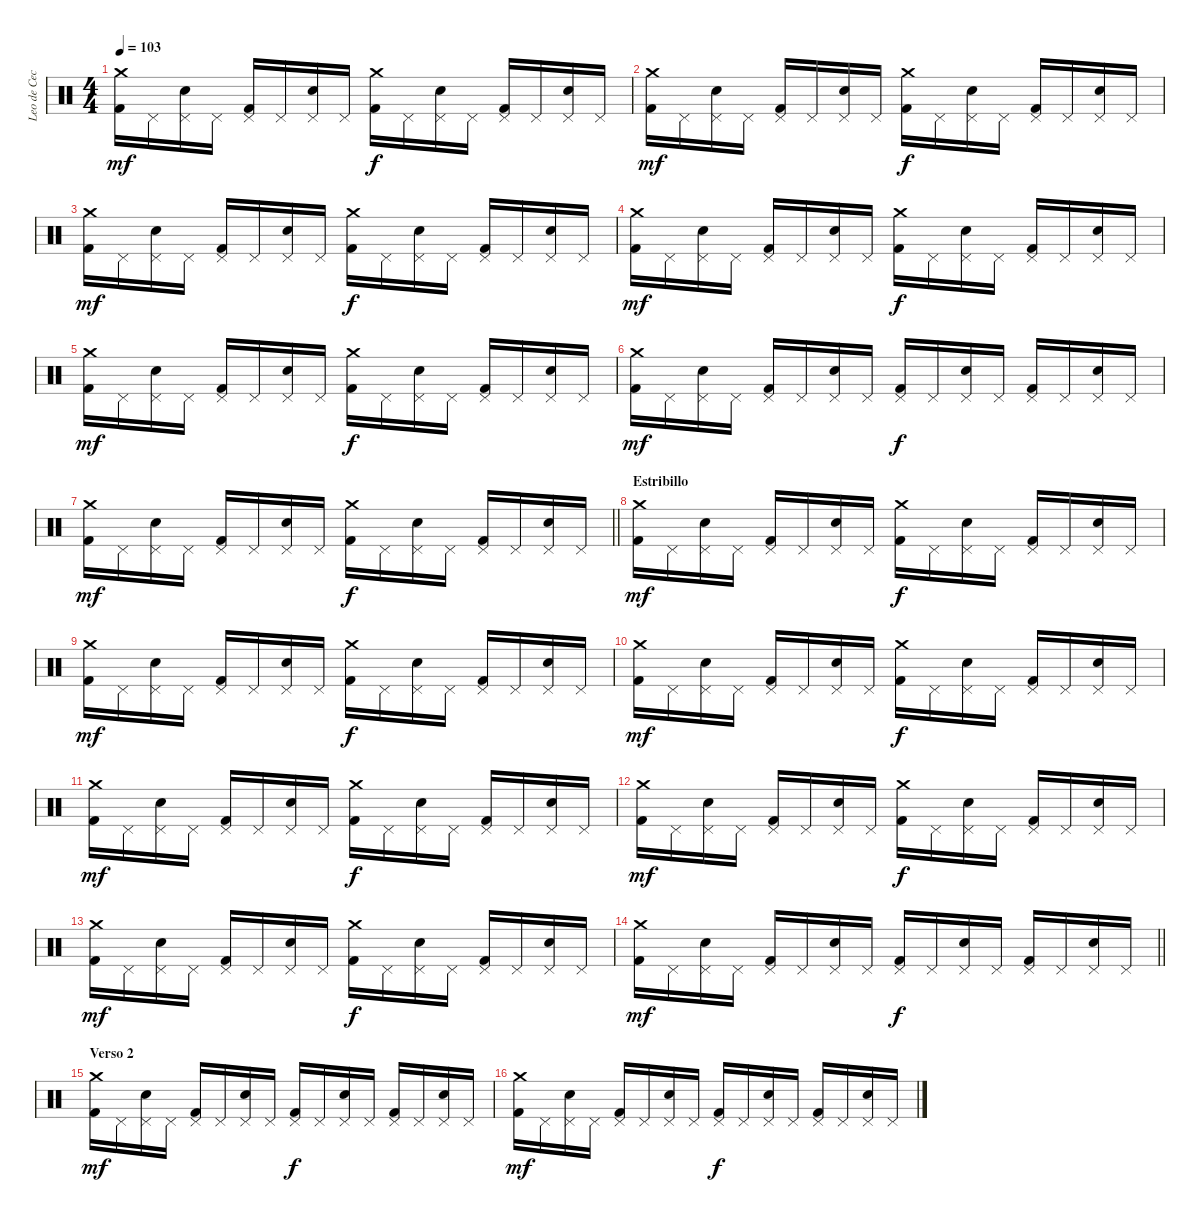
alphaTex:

\track ("Leo de Cecco" "Leo de Cec") {instrument percussion}
\staff {score}
\articulation defaults
\ts (4 4)
\tempo 103
\clef neutral
\ks c
("Crash medium (hit)" "Kick (hit) 2").16{dy mf} "Pedal Hi-Hat (hit)".16 ("Pedal Hi-Hat (hit)" "Snare (hit) 2").16 "Pedal Hi-Hat (hit)".16 ("Pedal Hi-Hat (hit)" "Kick (hit) 2").16 "Pedal Hi-Hat (hit)".16 ("Pedal Hi-Hat (hit)" "Snare (hit) 2").16 "Pedal Hi-Hat (hit)".16 ("Crash medium (hit)" "Kick (hit) 2").16{dy f} "Pedal Hi-Hat (hit)".16 ("Pedal Hi-Hat (hit)" "Snare (hit) 2").16 "Pedal Hi-Hat (hit)".16 ("Pedal Hi-Hat (hit)" "Kick (hit) 2").16 "Pedal Hi-Hat (hit)".16 ("Pedal Hi-Hat (hit)" "Snare (hit) 2").16 "Pedal Hi-Hat (hit)".16 |
("Crash medium (hit)" "Kick (hit) 2").16{dy mf} "Pedal Hi-Hat (hit)".16 ("Pedal Hi-Hat (hit)" "Snare (hit) 2").16 "Pedal Hi-Hat (hit)".16 ("Pedal Hi-Hat (hit)" "Kick (hit) 2").16 "Pedal Hi-Hat (hit)".16 ("Pedal Hi-Hat (hit)" "Snare (hit) 2").16 "Pedal Hi-Hat (hit)".16 ("Crash medium (hit)" "Kick (hit) 2").16{dy f} "Pedal Hi-Hat (hit)".16 ("Pedal Hi-Hat (hit)" "Snare (hit) 2").16 "Pedal Hi-Hat (hit)".16 ("Pedal Hi-Hat (hit)" "Kick (hit) 2").16 "Pedal Hi-Hat (hit)".16 ("Pedal Hi-Hat (hit)" "Snare (hit) 2").16 "Pedal Hi-Hat (hit)".16 |
("Crash medium (hit)" "Kick (hit) 2").16{dy mf} "Pedal Hi-Hat (hit)".16 ("Pedal Hi-Hat (hit)" "Snare (hit) 2").16 "Pedal Hi-Hat (hit)".16 ("Pedal Hi-Hat (hit)" "Kick (hit) 2").16 "Pedal Hi-Hat (hit)".16 ("Pedal Hi-Hat (hit)" "Snare (hit) 2").16 "Pedal Hi-Hat (hit)".16 ("Crash medium (hit)" "Kick (hit) 2").16{dy f} "Pedal Hi-Hat (hit)".16 ("Pedal Hi-Hat (hit)" "Snare (hit) 2").16 "Pedal Hi-Hat (hit)".16 ("Pedal Hi-Hat (hit)" "Kick (hit) 2").16 "Pedal Hi-Hat (hit)".16 ("Pedal Hi-Hat (hit)" "Snare (hit) 2").16 "Pedal Hi-Hat (hit)".16 |
("Crash medium (hit)" "Kick (hit) 2").16{dy mf} "Pedal Hi-Hat (hit)".16 ("Pedal Hi-Hat (hit)" "Snare (hit) 2").16 "Pedal Hi-Hat (hit)".16 ("Pedal Hi-Hat (hit)" "Kick (hit) 2").16 "Pedal Hi-Hat (hit)".16 ("Pedal Hi-Hat (hit)" "Snare (hit) 2").16 "Pedal Hi-Hat (hit)".16 ("Crash medium (hit)" "Kick (hit) 2").16{dy f} "Pedal Hi-Hat (hit)".16 ("Pedal Hi-Hat (hit)" "Snare (hit) 2").16 "Pedal Hi-Hat (hit)".16 ("Pedal Hi-Hat (hit)" "Kick (hit) 2").16 "Pedal Hi-Hat (hit)".16 ("Pedal Hi-Hat (hit)" "Snare (hit) 2").16 "Pedal Hi-Hat (hit)".16 |
("Crash medium (hit)" "Kick (hit) 2").16{dy mf} "Pedal Hi-Hat (hit)".16 ("Pedal Hi-Hat (hit)" "Snare (hit) 2").16 "Pedal Hi-Hat (hit)".16 ("Pedal Hi-Hat (hit)" "Kick (hit) 2").16 "Pedal Hi-Hat (hit)".16 ("Pedal Hi-Hat (hit)" "Snare (hit) 2").16 "Pedal Hi-Hat (hit)".16 ("Crash medium (hit)" "Kick (hit) 2").16{dy f} "Pedal Hi-Hat (hit)".16 ("Pedal Hi-Hat (hit)" "Snare (hit) 2").16 "Pedal Hi-Hat (hit)".16 ("Pedal Hi-Hat (hit)" "Kick (hit) 2").16 "Pedal Hi-Hat (hit)".16 ("Pedal Hi-Hat (hit)" "Snare (hit) 2").16 "Pedal Hi-Hat (hit)".16 |
("Crash medium (hit)" "Kick (hit) 2").16{dy mf} "Pedal Hi-Hat (hit)".16 ("Pedal Hi-Hat (hit)" "Snare (hit) 2").16 "Pedal Hi-Hat (hit)".16 ("Pedal Hi-Hat (hit)" "Kick (hit) 2").16 "Pedal Hi-Hat (hit)".16 ("Pedal Hi-Hat (hit)" "Snare (hit) 2").16 "Pedal Hi-Hat (hit)".16 ("Pedal Hi-Hat (hit)" "Kick (hit) 2").16{dy f} "Pedal Hi-Hat (hit)".16 ("Pedal Hi-Hat (hit)" "Snare (hit) 2").16 "Pedal Hi-Hat (hit)".16 ("Pedal Hi-Hat (hit)" "Kick (hit) 2").16 "Pedal Hi-Hat (hit)".16 ("Pedal Hi-Hat (hit)" "Snare (hit) 2").16 "Pedal Hi-Hat (hit)".16 |
\barLineRight lightlight
("Crash medium (hit)" "Kick (hit) 2").16{dy mf} "Pedal Hi-Hat (hit)".16 ("Pedal Hi-Hat (hit)" "Snare (hit) 2").16 "Pedal Hi-Hat (hit)".16 ("Pedal Hi-Hat (hit)" "Kick (hit) 2").16 "Pedal Hi-Hat (hit)".16 ("Pedal Hi-Hat (hit)" "Snare (hit) 2").16 "Pedal Hi-Hat (hit)".16 ("Crash medium (hit)" "Kick (hit) 2").16{dy f} "Pedal Hi-Hat (hit)".16 ("Pedal Hi-Hat (hit)" "Snare (hit) 2").16 "Pedal Hi-Hat (hit)".16 ("Pedal Hi-Hat (hit)" "Kick (hit) 2").16 "Pedal Hi-Hat (hit)".16 ("Pedal Hi-Hat (hit)" "Snare (hit) 2").16 "Pedal Hi-Hat (hit)".16 |
\section ("" "Estribillo")
("Crash medium (hit)" "Kick (hit) 2").16{dy mf} "Pedal Hi-Hat (hit)".16 ("Pedal Hi-Hat (hit)" "Snare (hit) 2").16 "Pedal Hi-Hat (hit)".16 ("Pedal Hi-Hat (hit)" "Kick (hit) 2").16 "Pedal Hi-Hat (hit)".16 ("Pedal Hi-Hat (hit)" "Snare (hit) 2").16 "Pedal Hi-Hat (hit)".16 ("Crash medium (hit)" "Kick (hit) 2").16{dy f} "Pedal Hi-Hat (hit)".16 ("Pedal Hi-Hat (hit)" "Snare (hit) 2").16 "Pedal Hi-Hat (hit)".16 ("Pedal Hi-Hat (hit)" "Kick (hit) 2").16 "Pedal Hi-Hat (hit)".16 ("Pedal Hi-Hat (hit)" "Snare (hit) 2").16 "Pedal Hi-Hat (hit)".16 |
("Crash medium (hit)" "Kick (hit) 2").16{dy mf} "Pedal Hi-Hat (hit)".16 ("Pedal Hi-Hat (hit)" "Snare (hit) 2").16 "Pedal Hi-Hat (hit)".16 ("Pedal Hi-Hat (hit)" "Kick (hit) 2").16 "Pedal Hi-Hat (hit)".16 ("Pedal Hi-Hat (hit)" "Snare (hit) 2").16 "Pedal Hi-Hat (hit)".16 ("Crash medium (hit)" "Kick (hit) 2").16{dy f} "Pedal Hi-Hat (hit)".16 ("Pedal Hi-Hat (hit)" "Snare (hit) 2").16 "Pedal Hi-Hat (hit)".16 ("Pedal Hi-Hat (hit)" "Kick (hit) 2").16 "Pedal Hi-Hat (hit)".16 ("Pedal Hi-Hat (hit)" "Snare (hit) 2").16 "Pedal Hi-Hat (hit)".16 |
("Crash medium (hit)" "Kick (hit) 2").16{dy mf} "Pedal Hi-Hat (hit)".16 ("Pedal Hi-Hat (hit)" "Snare (hit) 2").16 "Pedal Hi-Hat (hit)".16 ("Pedal Hi-Hat (hit)" "Kick (hit) 2").16 "Pedal Hi-Hat (hit)".16 ("Pedal Hi-Hat (hit)" "Snare (hit) 2").16 "Pedal Hi-Hat (hit)".16 ("Crash medium (hit)" "Kick (hit) 2").16{dy f} "Pedal Hi-Hat (hit)".16 ("Pedal Hi-Hat (hit)" "Snare (hit) 2").16 "Pedal Hi-Hat (hit)".16 ("Pedal Hi-Hat (hit)" "Kick (hit) 2").16 "Pedal Hi-Hat (hit)".16 ("Pedal Hi-Hat (hit)" "Snare (hit) 2").16 "Pedal Hi-Hat (hit)".16 |
("Crash medium (hit)" "Kick (hit) 2").16{dy mf} "Pedal Hi-Hat (hit)".16 ("Pedal Hi-Hat (hit)" "Snare (hit) 2").16 "Pedal Hi-Hat (hit)".16 ("Pedal Hi-Hat (hit)" "Kick (hit) 2").16 "Pedal Hi-Hat (hit)".16 ("Pedal Hi-Hat (hit)" "Snare (hit) 2").16 "Pedal Hi-Hat (hit)".16 ("Crash medium (hit)" "Kick (hit) 2").16{dy f} "Pedal Hi-Hat (hit)".16 ("Pedal Hi-Hat (hit)" "Snare (hit) 2").16 "Pedal Hi-Hat (hit)".16 ("Pedal Hi-Hat (hit)" "Kick (hit) 2").16 "Pedal Hi-Hat (hit)".16 ("Pedal Hi-Hat (hit)" "Snare (hit) 2").16 "Pedal Hi-Hat (hit)".16 |
("Crash medium (hit)" "Kick (hit) 2").16{dy mf} "Pedal Hi-Hat (hit)".16 ("Pedal Hi-Hat (hit)" "Snare (hit) 2").16 "Pedal Hi-Hat (hit)".16 ("Pedal Hi-Hat (hit)" "Kick (hit) 2").16 "Pedal Hi-Hat (hit)".16 ("Pedal Hi-Hat (hit)" "Snare (hit) 2").16 "Pedal Hi-Hat (hit)".16 ("Crash medium (hit)" "Kick (hit) 2").16{dy f} "Pedal Hi-Hat (hit)".16 ("Pedal Hi-Hat (hit)" "Snare (hit) 2").16 "Pedal Hi-Hat (hit)".16 ("Pedal Hi-Hat (hit)" "Kick (hit) 2").16 "Pedal Hi-Hat (hit)".16 ("Pedal Hi-Hat (hit)" "Snare (hit) 2").16 "Pedal Hi-Hat (hit)".16 |
("Crash medium (hit)" "Kick (hit) 2").16{dy mf} "Pedal Hi-Hat (hit)".16 ("Pedal Hi-Hat (hit)" "Snare (hit) 2").16 "Pedal Hi-Hat (hit)".16 ("Pedal Hi-Hat (hit)" "Kick (hit) 2").16 "Pedal Hi-Hat (hit)".16 ("Pedal Hi-Hat (hit)" "Snare (hit) 2").16 "Pedal Hi-Hat (hit)".16 ("Crash medium (hit)" "Kick (hit) 2").16{dy f} "Pedal Hi-Hat (hit)".16 ("Pedal Hi-Hat (hit)" "Snare (hit) 2").16 "Pedal Hi-Hat (hit)".16 ("Pedal Hi-Hat (hit)" "Kick (hit) 2").16 "Pedal Hi-Hat (hit)".16 ("Pedal Hi-Hat (hit)" "Snare (hit) 2").16 "Pedal Hi-Hat (hit)".16 |
\barLineRight lightlight
("Crash medium (hit)" "Kick (hit) 2").16{dy mf} "Pedal Hi-Hat (hit)".16 ("Pedal Hi-Hat (hit)" "Snare (hit) 2").16 "Pedal Hi-Hat (hit)".16 ("Pedal Hi-Hat (hit)" "Kick (hit) 2").16 "Pedal Hi-Hat (hit)".16 ("Pedal Hi-Hat (hit)" "Snare (hit) 2").16 "Pedal Hi-Hat (hit)".16 ("Pedal Hi-Hat (hit)" "Kick (hit) 2").16{dy f} "Pedal Hi-Hat (hit)".16 ("Pedal Hi-Hat (hit)" "Snare (hit) 2").16 "Pedal Hi-Hat (hit)".16 ("Pedal Hi-Hat (hit)" "Kick (hit) 2").16 "Pedal Hi-Hat (hit)".16 ("Pedal Hi-Hat (hit)" "Snare (hit) 2").16 "Pedal Hi-Hat (hit)".16 |
\section ("" "Verso 2")
("Crash medium (hit)" "Kick (hit) 2").16{dy mf} "Pedal Hi-Hat (hit)".16 ("Pedal Hi-Hat (hit)" "Snare (hit) 2").16 "Pedal Hi-Hat (hit)".16 ("Pedal Hi-Hat (hit)" "Kick (hit) 2").16 "Pedal Hi-Hat (hit)".16 ("Pedal Hi-Hat (hit)" "Snare (hit) 2").16 "Pedal Hi-Hat (hit)".16 ("Pedal Hi-Hat (hit)" "Kick (hit) 2").16{dy f} "Pedal Hi-Hat (hit)".16 ("Pedal Hi-Hat (hit)" "Snare (hit) 2").16 "Pedal Hi-Hat (hit)".16 ("Pedal Hi-Hat (hit)" "Kick (hit) 2").16 "Pedal Hi-Hat (hit)".16 ("Pedal Hi-Hat (hit)" "Snare (hit) 2").16 "Pedal Hi-Hat (hit)".16 |
("Crash medium (hit)" "Kick (hit) 2").16{dy mf} "Pedal Hi-Hat (hit)".16 ("Pedal Hi-Hat (hit)" "Snare (hit) 2").16 "Pedal Hi-Hat (hit)".16 ("Pedal Hi-Hat (hit)" "Kick (hit) 2").16 "Pedal Hi-Hat (hit)".16 ("Pedal Hi-Hat (hit)" "Snare (hit) 2").16 "Pedal Hi-Hat (hit)".16 ("Pedal Hi-Hat (hit)" "Kick (hit) 2").16{dy f} "Pedal Hi-Hat (hit)".16 ("Pedal Hi-Hat (hit)" "Snare (hit) 2").16 "Pedal Hi-Hat (hit)".16 ("Pedal Hi-Hat (hit)" "Kick (hit) 2").16 "Pedal Hi-Hat (hit)".16 ("Pedal Hi-Hat (hit)" "Snare (hit) 2").16 "Pedal Hi-Hat (hit)".16
